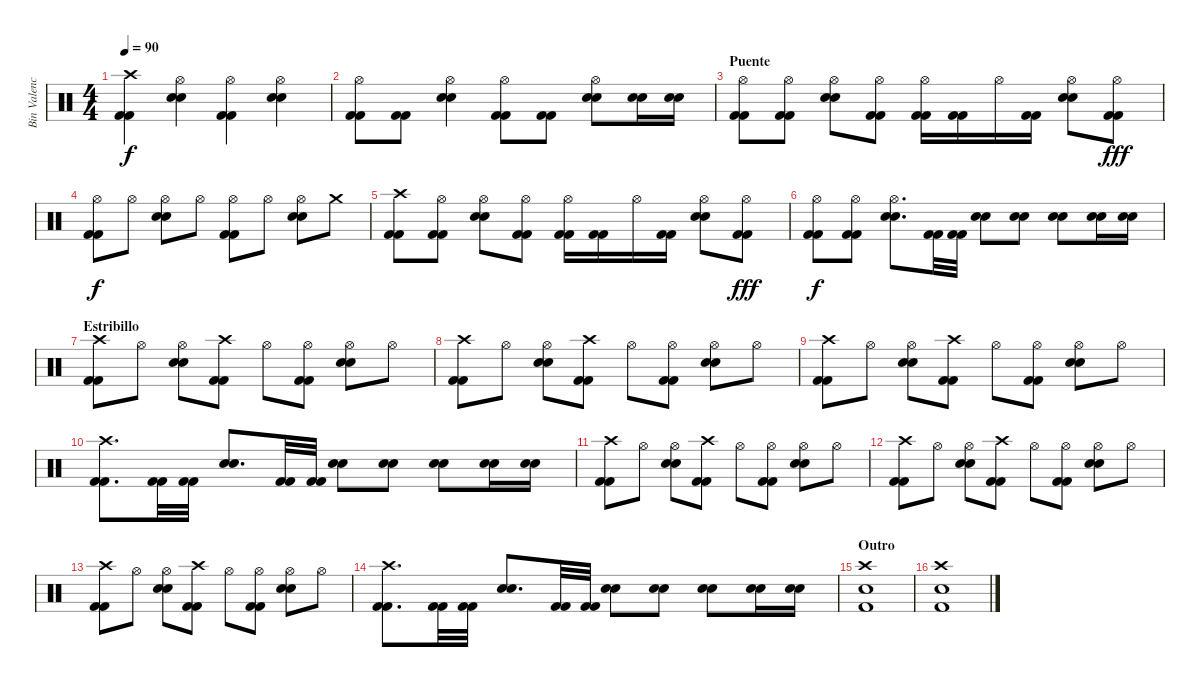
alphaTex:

\track ("Bin Valencia" "Bin Valenc") {instrument percussion}
\staff {score}
\articulation defaults
\ts (4 4)
\tempo 90
\clef neutral
\ks c
("Crash high (hit)" "Kick (hit) 2" "Kick (hit) 2").4{dy f} ("Hi-Hat (open)" "Snare (hit) 2" "Snare (hit) 2").4 ("Hi-Hat (open)" "Kick (hit) 2" "Kick (hit) 2").4 ("Hi-Hat (open)" "Snare (hit) 2" "Snare (hit) 2").4 |
("Hi-Hat (open)" "Kick (hit) 2" "Kick (hit) 2").8 ("Kick (hit) 2" "Kick (hit) 2").8 ("Hi-Hat (open)" "Snare (hit) 2" "Snare (hit) 2").4 ("Hi-Hat (open)" "Kick (hit) 2" "Kick (hit) 2").8 ("Kick (hit) 2" "Kick (hit) 2").8 ("Hi-Hat (open)" "Snare (hit) 2" "Snare (hit) 2").8 ("Snare (hit) 2" "Snare (hit) 2").16 ("Snare (hit) 2" "Snare (hit) 2").16 |
\section ("" "Puente")
("Hi-Hat (open)" "Kick (hit) 2" "Kick (hit) 2").8 ("Hi-Hat (open)" "Kick (hit) 2" "Kick (hit) 2").8 ("Hi-Hat (open)" "Snare (hit) 2" "Snare (hit) 2").8 ("Hi-Hat (open)" "Kick (hit) 2" "Kick (hit) 2").8 ("Hi-Hat (open)" "Kick (hit) 2" "Kick (hit) 2").16 ("Kick (hit) 2" "Kick (hit) 2").16 "Hi-Hat (open)".16 ("Kick (hit) 2" "Kick (hit) 2").16 ("Hi-Hat (open)" "Snare (hit) 2" "Snare (hit) 2").8 ("Hi-Hat (open)" "Kick (hit) 2" "Kick (hit) 2").8{dy fff} |
("Hi-Hat (open)" "Kick (hit) 2" "Kick (hit) 2").8{dy f} "Hi-Hat (open)".8 ("Hi-Hat (open)" "Snare (hit) 2" "Snare (hit) 2").8 "Hi-Hat (open)".8 ("Hi-Hat (open)" "Kick (hit) 2" "Kick (hit) 2").8 "Hi-Hat (open)".8 ("Hi-Hat (open)" "Snare (hit) 2" "Snare (hit) 2").8 "Crash medium (hit)".8 |
("Crash high (hit)" "Kick (hit) 2" "Kick (hit) 2").8 ("Hi-Hat (open)" "Kick (hit) 2" "Kick (hit) 2").8 ("Hi-Hat (open)" "Snare (hit) 2" "Snare (hit) 2").8 ("Hi-Hat (open)" "Kick (hit) 2" "Kick (hit) 2").8 ("Hi-Hat (open)" "Kick (hit) 2" "Kick (hit) 2").16 ("Kick (hit) 2" "Kick (hit) 2").16 "Hi-Hat (open)".16 ("Kick (hit) 2" "Kick (hit) 2").16 ("Hi-Hat (open)" "Snare (hit) 2" "Snare (hit) 2").8 ("Hi-Hat (open)" "Kick (hit) 2" "Kick (hit) 2").8{dy fff} |
("Hi-Hat (open)" "Kick (hit) 2" "Kick (hit) 2").8{dy f} ("Hi-Hat (open)" "Kick (hit) 2" "Kick (hit) 2").8 ("Hi-Hat (open)" "Snare (hit) 2" "Snare (hit) 2").8{d} ("Kick (hit) 2" "Kick (hit) 2").32 ("Kick (hit) 2" "Kick (hit) 2").32 ("Snare (hit) 2" "Snare (hit) 2").8 ("Snare (hit) 2" "Snare (hit) 2").8 ("Snare (hit) 2" "Snare (hit) 2").8 ("Snare (hit) 2" "Snare (hit) 2").16 ("Snare (hit) 2" "Snare (hit) 2").16 |
\section ("" "Estribillo")
("Crash high (hit)" "Kick (hit) 2" "Kick (hit) 2").8 "Hi-Hat (open)".8 ("Hi-Hat (open)" "Snare (hit) 2" "Snare (hit) 2").8 ("Crash high (hit)" "Kick (hit) 2" "Kick (hit) 2").8 "Hi-Hat (open)".8 ("Hi-Hat (open)" "Kick (hit) 2" "Kick (hit) 2").8 ("Hi-Hat (open)" "Snare (hit) 2" "Snare (hit) 2").8 "Hi-Hat (open)".8 |
("Crash high (hit)" "Kick (hit) 2" "Kick (hit) 2").8 "Hi-Hat (open)".8 ("Hi-Hat (open)" "Snare (hit) 2" "Snare (hit) 2").8 ("Crash high (hit)" "Kick (hit) 2" "Kick (hit) 2").8 "Hi-Hat (open)".8 ("Hi-Hat (open)" "Kick (hit) 2" "Kick (hit) 2").8 ("Hi-Hat (open)" "Snare (hit) 2" "Snare (hit) 2").8 "Hi-Hat (open)".8 |
("Crash high (hit)" "Kick (hit) 2" "Kick (hit) 2").8 "Hi-Hat (open)".8 ("Hi-Hat (open)" "Snare (hit) 2" "Snare (hit) 2").8 ("Crash high (hit)" "Kick (hit) 2" "Kick (hit) 2").8 "Hi-Hat (open)".8 ("Hi-Hat (open)" "Kick (hit) 2" "Kick (hit) 2").8 ("Hi-Hat (open)" "Snare (hit) 2" "Snare (hit) 2").8 "Hi-Hat (open)".8 |
("Crash high (hit)" "Kick (hit) 2" "Kick (hit) 2").8{d} ("Kick (hit) 2" "Kick (hit) 2").32 ("Kick (hit) 2" "Kick (hit) 2").32 ("Snare (hit) 2" "Snare (hit) 2").8{d} ("Kick (hit) 2" "Kick (hit) 2").32 ("Kick (hit) 2" "Kick (hit) 2").32 ("Snare (hit) 2" "Snare (hit) 2").8 ("Snare (hit) 2" "Snare (hit) 2").8 ("Snare (hit) 2" "Snare (hit) 2").8 ("Snare (hit) 2" "Snare (hit) 2").16 ("Snare (hit) 2" "Snare (hit) 2").16 |
("Crash high (hit)" "Kick (hit) 2" "Kick (hit) 2").8 "Hi-Hat (open)".8 ("Hi-Hat (open)" "Snare (hit) 2" "Snare (hit) 2").8 ("Crash high (hit)" "Kick (hit) 2" "Kick (hit) 2").8 "Hi-Hat (open)".8 ("Hi-Hat (open)" "Kick (hit) 2" "Kick (hit) 2").8 ("Hi-Hat (open)" "Snare (hit) 2" "Snare (hit) 2").8 "Hi-Hat (open)".8 |
("Crash high (hit)" "Kick (hit) 2" "Kick (hit) 2").8 "Hi-Hat (open)".8 ("Hi-Hat (open)" "Snare (hit) 2" "Snare (hit) 2").8 ("Crash high (hit)" "Kick (hit) 2" "Kick (hit) 2").8 "Hi-Hat (open)".8 ("Hi-Hat (open)" "Kick (hit) 2" "Kick (hit) 2").8 ("Hi-Hat (open)" "Snare (hit) 2" "Snare (hit) 2").8 "Hi-Hat (open)".8 |
("Crash high (hit)" "Kick (hit) 2" "Kick (hit) 2").8 "Hi-Hat (open)".8 ("Hi-Hat (open)" "Snare (hit) 2" "Snare (hit) 2").8 ("Crash high (hit)" "Kick (hit) 2" "Kick (hit) 2").8 "Hi-Hat (open)".8 ("Hi-Hat (open)" "Kick (hit) 2" "Kick (hit) 2").8 ("Hi-Hat (open)" "Snare (hit) 2" "Snare (hit) 2").8 "Hi-Hat (open)".8 |
("Crash high (hit)" "Kick (hit) 2" "Kick (hit) 2").8{d} ("Kick (hit) 2" "Kick (hit) 2").32 ("Kick (hit) 2" "Kick (hit) 2").32 ("Snare (hit) 2" "Snare (hit) 2").8{d} ("Kick (hit) 2" "Kick (hit) 2").32 ("Kick (hit) 2" "Kick (hit) 2").32 ("Snare (hit) 2" "Snare (hit) 2").8 ("Snare (hit) 2" "Snare (hit) 2").8 ("Snare (hit) 2" "Snare (hit) 2").8 ("Snare (hit) 2" "Snare (hit) 2").16 ("Snare (hit) 2" "Snare (hit) 2").16 |
\section ("" "Outro")
("Crash high (hit)" "Snare (hit) 2" "Kick (hit) 2").1 |
("Crash high (hit)" "Snare (hit) 2" "Kick (hit) 2").1
